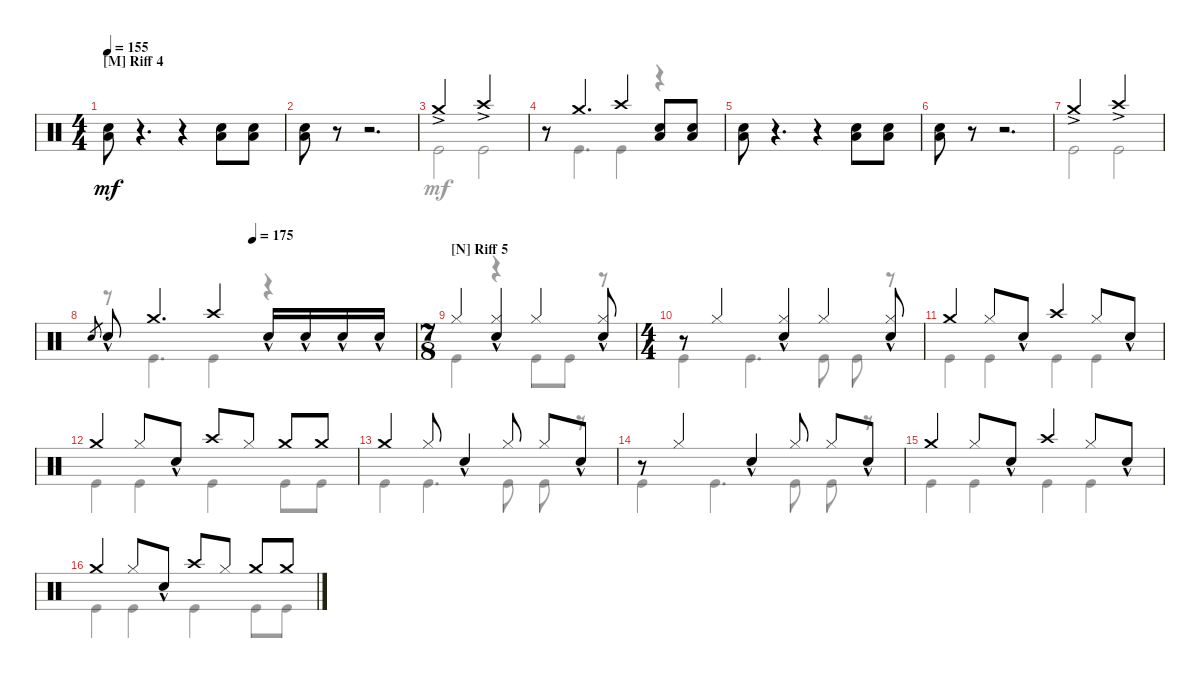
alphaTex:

\defaultSystemsLayout 4
\bracketExtendMode groupsimilarinstruments
\singleTrackTrackNamePolicy hidden
\multiTrackTrackNamePolicy hidden
\firstSystemTrackNameOrientation horizontal
\otherSystemsTrackNameOrientation horizontal
\track ("Nicko McBrain" "Drums") {instrument percussion}
\staff {score}
\articulation defaults
\voice
\ts (4 4)
\section ("M" "Riff 4")
\tempo 155
\clef neutral
\scale
1.02648
\ks c
("Snare (hit) 2" "Low Tom (hit)").8{dy mf} r.4{d} r.4 ("Snare (hit) 2" "Low Tom (hit)").8 ("Snare (hit) 2" "Low Tom (hit)").8 |
\scale
0.973518 ("Snare (hit) 2" "Low Tom (hit)").8 r.8 r.2{d} |
\scale
1.02648 "Crash medium (hit)"{ac}.2 "Crash high (hit)"{ac}.2 |
\scale
0.973518 r.8 "Crash medium (hit)".4{d} "Crash high (hit)".4 ("Snare (hit) 2" "Low Tom (hit)").8 ("Snare (hit) 2" "Low Tom (hit)").8 |
\scale
1.02648 ("Snare (hit) 2" "Low Tom (hit)").8 r.4{d} r.4 ("Snare (hit) 2" "Low Tom (hit)").8 ("Snare (hit) 2" "Low Tom (hit)").8 |
\scale
0.973518 ("Snare (hit) 2" "Low Tom (hit)").8 r.8 r.2{d} |
\scale
1.02648 "Crash medium (hit)"{ac}.2 "Crash high (hit)"{ac}.2 |
\tempo (175 0.5)
\scale
0.973518 "Snare (hit) 2".8{gr} "Snare (hit) 2"{hac}.8 "Crash medium (hit)".4{d} "Crash high (hit)".4 "Snare (hit) 2"{hac}.16 "Snare (hit) 2"{hac}.16 "Snare (hit) 2"{hac}.16 "Snare (hit) 2"{hac}.16 |
\ts (7 8)
\section ("N" "Riff 5")
\scale
1.05675 "Hi-Hat (closed)".4 ("Hi-Hat (closed)" "Snare (hit) 2"{hac}).4 "Hi-Hat (closed)".4 ("Hi-Hat (closed)" "Snare (hit) 2"{hac}).8 |
\ts (4 4)
\scale
0.943253 r.8 "Hi-Hat (closed)".4 ("Hi-Hat (closed)" "Snare (hit) 2"{hac}).4 "Hi-Hat (closed)".4 ("Hi-Hat (closed)" "Snare (hit) 2"{hac}).8 |
\scale
1.02648 "Crash medium (hit)".4 "Hi-Hat (closed)".8 "Snare (hit) 2"{hac}.8 "Crash high (hit)".4 "Hi-Hat (closed)".8 "Snare (hit) 2"{hac}.8 |
\scale
0.973518 "Crash medium (hit)".4 "Hi-Hat (closed)".8 "Snare (hit) 2"{hac}.8 "Crash high (hit)".8 "Hi-Hat (closed)".8 "Crash medium (hit)".8 "Crash medium (hit)".8 |
\scale
1.02648 "Crash medium (hit)".4 "Hi-Hat (closed)".8 "Snare (hit) 2"{hac}.4 "Hi-Hat (closed)".8 "Hi-Hat (closed)".8 "Snare (hit) 2"{hac}.8 |
\scale
0.973518 r.8 "Hi-Hat (closed)".4 "Snare (hit) 2"{hac}.4 "Hi-Hat (closed)".8 "Hi-Hat (closed)".8 "Snare (hit) 2"{hac}.8 |
\scale
1.02648 "Crash medium (hit)".4 "Hi-Hat (closed)".8 "Snare (hit) 2"{hac}.8 "Crash high (hit)".4 "Hi-Hat (closed)".8 "Snare (hit) 2"{hac}.8 |
\scale
0.973518 "Crash medium (hit)".4 "Hi-Hat (closed)".8 "Snare (hit) 2"{hac}.8 "Crash high (hit)".8 "Hi-Hat (closed)".8 "Crash medium (hit)".8 "Crash medium (hit)".8
\voice
\clef neutral
\ottava regular
\simile none
\scale
1.02648
\ks c
|
\scale
0.973518 |
\scale
1.02648 "Kick (hit)".2 "Kick (hit)".2 |
\scale
0.973518 r.8 "Kick (hit)".4{d} "Kick (hit)".4 r.4 |
\scale
1.02648 |
\scale
0.973518 |
\scale
1.02648 "Kick (hit)".2 "Kick (hit)".2 |
\scale
0.973518 r.8 "Kick (hit)".4{d} "Kick (hit)".4 r.4 |
\scale
1.05675 "Kick (hit)".4 r.4 "Kick (hit)".8 "Kick (hit)".8 r.8 |
\scale
0.943253 "Kick (hit)".4 "Kick (hit)".4{d} "Kick (hit)".8 "Kick (hit)".8 r.8 |
\scale
1.02648 "Kick (hit)".4 "Kick (hit)".4 "Kick (hit)".4 "Kick (hit)".4 |
\scale
0.973518 "Kick (hit)".4 "Kick (hit)".4 "Kick (hit)".4 "Kick (hit)".8 "Kick (hit)".8 |
\scale
1.02648 "Kick (hit)".4 "Kick (hit)".4{d} "Kick (hit)".8 "Kick (hit)".8 r.8 |
\scale
0.973518 "Kick (hit)".4 "Kick (hit)".4{d} "Kick (hit)".8 "Kick (hit)".8 r.8 |
\scale
1.02648 "Kick (hit)".4 "Kick (hit)".4 "Kick (hit)".4 "Kick (hit)".4 |
\scale
0.973518 "Kick (hit)".4 "Kick (hit)".4 "Kick (hit)".4 "Kick (hit)".8 "Kick (hit)".8
